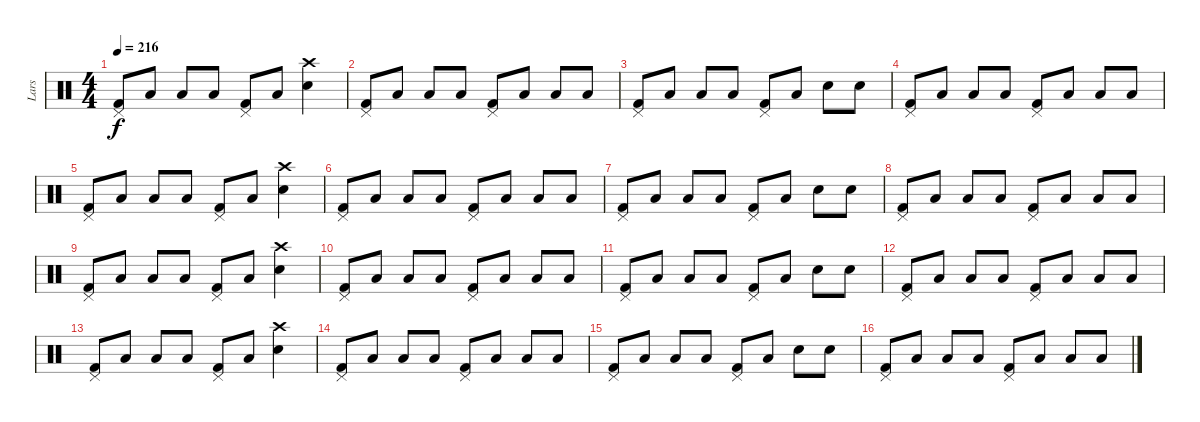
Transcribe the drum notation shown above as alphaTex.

\track ("Lars" "Lars") {instrument percussion}
\staff {score}
\articulation defaults
\ts (4 4)
\tempo 216
\clef neutral
\ks c
("Pedal Hi-Hat (hit)" "Kick (hit) 2").8{dy f} "Low Tom (hit)".8 "Low Tom (hit)".8 "Low Tom (hit)".8 ("Pedal Hi-Hat (hit)" "Kick (hit) 2").8 "Low Tom (hit)".8 ("Crash high (hit)" "Snare (hit) 2").4 |
("Pedal Hi-Hat (hit)" "Kick (hit) 2").8 "Low Tom (hit)".8 "Low Tom (hit)".8 "Low Tom (hit)".8 ("Pedal Hi-Hat (hit)" "Kick (hit) 2").8 "Low Tom (hit)".8 "Low Tom (hit)".8 "Low Tom (hit)".8 |
("Pedal Hi-Hat (hit)" "Kick (hit) 2").8 "Low Tom (hit)".8 "Low Tom (hit)".8 "Low Tom (hit)".8 ("Pedal Hi-Hat (hit)" "Kick (hit) 2").8 "Low Tom (hit)".8 "Snare (hit) 2".8 "Snare (hit) 2".8 |
("Pedal Hi-Hat (hit)" "Kick (hit) 2").8 "Low Tom (hit)".8 "Low Tom (hit)".8 "Low Tom (hit)".8 ("Pedal Hi-Hat (hit)" "Kick (hit) 2").8 "Low Tom (hit)".8 "Low Tom (hit)".8 "Low Tom (hit)".8 |
("Pedal Hi-Hat (hit)" "Kick (hit) 2").8 "Low Tom (hit)".8 "Low Tom (hit)".8 "Low Tom (hit)".8 ("Pedal Hi-Hat (hit)" "Kick (hit) 2").8 "Low Tom (hit)".8 ("Crash high (hit)" "Snare (hit) 2").4 |
("Pedal Hi-Hat (hit)" "Kick (hit) 2").8 "Low Tom (hit)".8 "Low Tom (hit)".8 "Low Tom (hit)".8 ("Pedal Hi-Hat (hit)" "Kick (hit) 2").8 "Low Tom (hit)".8 "Low Tom (hit)".8 "Low Tom (hit)".8 |
("Pedal Hi-Hat (hit)" "Kick (hit) 2").8 "Low Tom (hit)".8 "Low Tom (hit)".8 "Low Tom (hit)".8 ("Pedal Hi-Hat (hit)" "Kick (hit) 2").8 "Low Tom (hit)".8 "Snare (hit) 2".8 "Snare (hit) 2".8 |
("Pedal Hi-Hat (hit)" "Kick (hit) 2").8 "Low Tom (hit)".8 "Low Tom (hit)".8 "Low Tom (hit)".8 ("Pedal Hi-Hat (hit)" "Kick (hit) 2").8 "Low Tom (hit)".8 "Low Tom (hit)".8 "Low Tom (hit)".8 |
("Pedal Hi-Hat (hit)" "Kick (hit) 2").8 "Low Tom (hit)".8 "Low Tom (hit)".8 "Low Tom (hit)".8 ("Pedal Hi-Hat (hit)" "Kick (hit) 2").8 "Low Tom (hit)".8 ("Crash high (hit)" "Snare (hit) 2").4 |
("Pedal Hi-Hat (hit)" "Kick (hit) 2").8 "Low Tom (hit)".8 "Low Tom (hit)".8 "Low Tom (hit)".8 ("Pedal Hi-Hat (hit)" "Kick (hit) 2").8 "Low Tom (hit)".8 "Low Tom (hit)".8 "Low Tom (hit)".8 |
("Pedal Hi-Hat (hit)" "Kick (hit) 2").8 "Low Tom (hit)".8 "Low Tom (hit)".8 "Low Tom (hit)".8 ("Pedal Hi-Hat (hit)" "Kick (hit) 2").8 "Low Tom (hit)".8 "Snare (hit) 2".8 "Snare (hit) 2".8 |
("Pedal Hi-Hat (hit)" "Kick (hit) 2").8 "Low Tom (hit)".8 "Low Tom (hit)".8 "Low Tom (hit)".8 ("Pedal Hi-Hat (hit)" "Kick (hit) 2").8 "Low Tom (hit)".8 "Low Tom (hit)".8 "Low Tom (hit)".8 |
("Pedal Hi-Hat (hit)" "Kick (hit) 2").8 "Low Tom (hit)".8 "Low Tom (hit)".8 "Low Tom (hit)".8 ("Pedal Hi-Hat (hit)" "Kick (hit) 2").8 "Low Tom (hit)".8 ("Crash high (hit)" "Snare (hit) 2").4 |
("Pedal Hi-Hat (hit)" "Kick (hit) 2").8 "Low Tom (hit)".8 "Low Tom (hit)".8 "Low Tom (hit)".8 ("Pedal Hi-Hat (hit)" "Kick (hit) 2").8 "Low Tom (hit)".8 "Low Tom (hit)".8 "Low Tom (hit)".8 |
("Pedal Hi-Hat (hit)" "Kick (hit) 2").8 "Low Tom (hit)".8 "Low Tom (hit)".8 "Low Tom (hit)".8 ("Pedal Hi-Hat (hit)" "Kick (hit) 2").8 "Low Tom (hit)".8 "Snare (hit) 2".8 "Snare (hit) 2".8 |
("Pedal Hi-Hat (hit)" "Kick (hit) 2").8 "Low Tom (hit)".8 "Low Tom (hit)".8 "Low Tom (hit)".8 ("Pedal Hi-Hat (hit)" "Kick (hit) 2").8 "Low Tom (hit)".8 "Low Tom (hit)".8 "Low Tom (hit)".8
